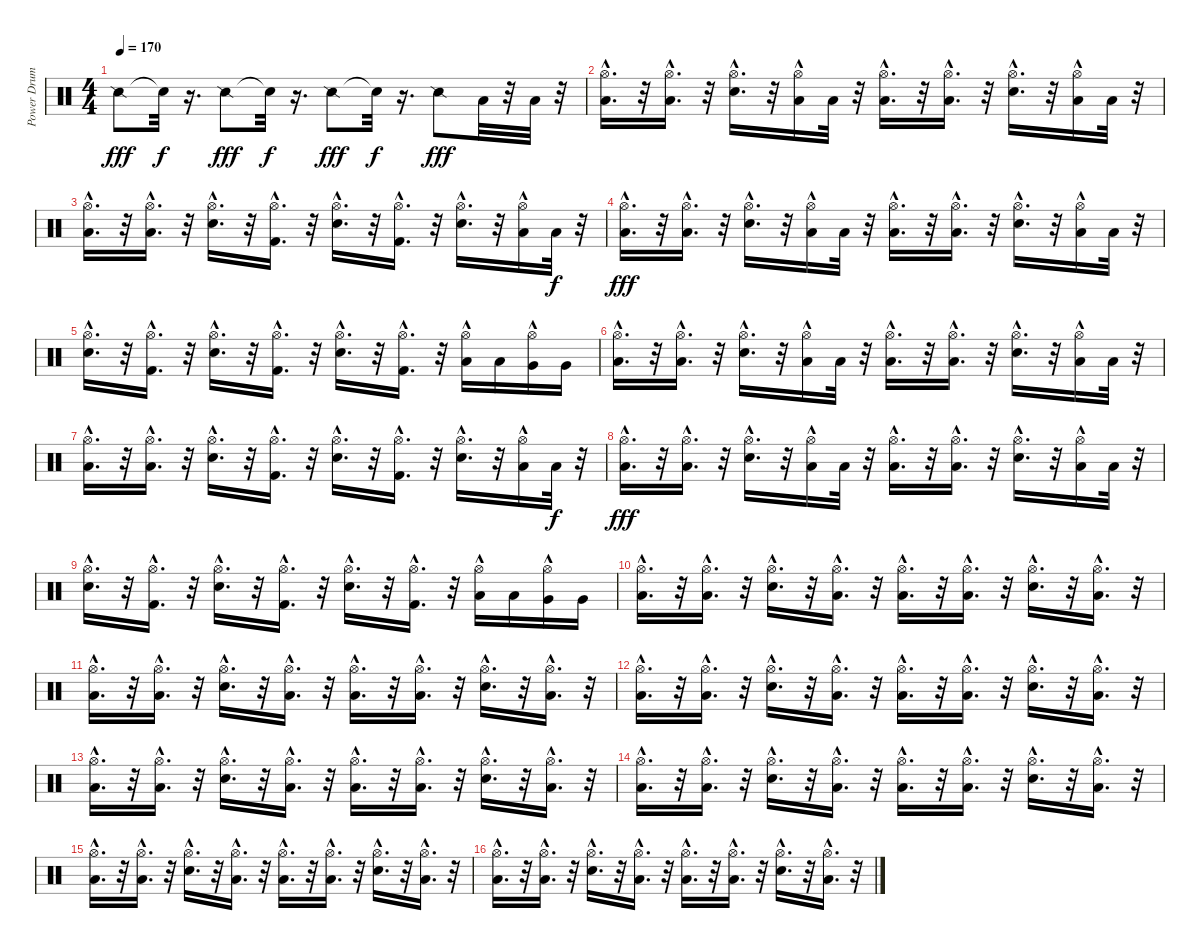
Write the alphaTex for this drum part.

\track ("Power Drums " "Power Drum") {instrument percussion}
\staff {score}
\articulation defaults
\ts (4 4)
\tempo 170
\clef neutral
\ks c "Snare (side stick) 2".8{dy fff} "Snare (hit)"{t}.32{dy f}
r.16{d} "Snare (side stick) 2".8{dy fff} "Snare (hit)"{t}.32{dy f} r.16{d} "Snare (side stick) 2".8{dy fff} "Snare (hit)"{t}.32{dy f} r.16{d} "Snare (side stick) 2".8{dy fff} "Low Floor Tom (hit)".32 r.32 "Low Floor Tom (hit)".32 r.32 |
("Hi-Hat (open)"{hac} "Low Floor Tom (hit)"{hac}).16{d} r.32 ("Hi-Hat (open)"{hac} "Low Floor Tom (hit)"{hac}).16{d} r.32 ("Snare (hit) 2"{hac} "Hi-Hat (open)"{hac}).16{d} r.32 ("Hi-Hat (open)"{hac} "Low Floor Tom (hit)").16 "Low Floor Tom (hit)".32 r.32 ("Hi-Hat (open)"{hac} "Low Floor Tom (hit)"{hac}).16{d} r.32 ("Hi-Hat (open)"{hac} "Low Floor Tom (hit)"{hac}).16{d} r.32 ("Snare (hit) 2"{hac} "Hi-Hat (open)"{hac}).16{d} r.32 ("Hi-Hat (open)"{hac} "Low Floor Tom (hit)").16 "Low Floor Tom (hit)".32 r.32 |
("Hi-Hat (open)"{hac} "Low Floor Tom (hit)"{hac}).16{d} r.32 ("Hi-Hat (open)"{hac} "Low Floor Tom (hit)"{hac}).16{d} r.32 ("Snare (hit) 2"{hac} "Hi-Hat (open)"{hac}).16{d} r.32 ("Kick (hit) 2"{hac} "Hi-Hat (open)"{hac}).16{d} r.32 ("Snare (hit) 2"{hac} "Hi-Hat (open)"{hac}).16{d} r.32 ("Kick (hit) 2"{hac} "Hi-Hat (open)"{hac}).16{d} r.32 ("Snare (hit) 2"{hac} "Hi-Hat (open)"{hac}).16{d} r.32 ("Hi-Hat (open)"{hac} "Low Floor Tom (hit)").16 "Low Floor Tom (hit)".32{dy f} r.32 |
("Hi-Hat (open)"{hac} "Low Floor Tom (hit)"{hac}).16{d dy fff} r.32 ("Hi-Hat (open)"{hac} "Low Floor Tom (hit)"{hac}).16{d} r.32 ("Snare (hit) 2"{hac} "Hi-Hat (open)"{hac}).16{d} r.32 ("Hi-Hat (open)"{hac} "Low Floor Tom (hit)").16 "Low Floor Tom (hit)".32 r.32 ("Hi-Hat (open)"{hac} "Low Floor Tom (hit)"{hac}).16{d} r.32 ("Hi-Hat (open)"{hac} "Low Floor Tom (hit)"{hac}).16{d} r.32 ("Snare (hit) 2"{hac} "Hi-Hat (open)"{hac}).16{d} r.32 ("Hi-Hat (open)"{hac} "Low Floor Tom (hit)").16 "Low Floor Tom (hit)".32 r.32 |
("Snare (hit) 2"{hac} "Hi-Hat (open)"{hac}).16{d} r.32 ("Kick (hit) 2"{hac} "Hi-Hat (open)"{hac}).16{d} r.32 ("Snare (hit) 2"{hac} "Hi-Hat (open)"{hac}).16{d} r.32 ("Kick (hit) 2"{hac} "Hi-Hat (open)"{hac}).16{d} r.32 ("Snare (hit) 2"{hac} "Hi-Hat (open)"{hac}).16{d} r.32 ("Kick (hit) 2"{hac} "Hi-Hat (open)"{hac}).16{d} r.32 ("Hi-Hat (open)"{hac} "Low Tom (hit)").16 "Low Tom (hit)".16 ("Hi-Hat (open)"{hac} "Very Low Tom (hit)").16 "Very Low Tom (hit)".16 |
("Hi-Hat (open)"{hac} "Low Floor Tom (hit)"{hac}).16{d} r.32 ("Hi-Hat (open)"{hac} "Low Floor Tom (hit)"{hac}).16{d} r.32 ("Snare (hit) 2"{hac} "Hi-Hat (open)"{hac}).16{d} r.32 ("Hi-Hat (open)"{hac} "Low Floor Tom (hit)").16 "Low Floor Tom (hit)".32 r.32 ("Hi-Hat (open)"{hac} "Low Floor Tom (hit)"{hac}).16{d} r.32 ("Hi-Hat (open)"{hac} "Low Floor Tom (hit)"{hac}).16{d} r.32 ("Snare (hit) 2"{hac} "Hi-Hat (open)"{hac}).16{d} r.32 ("Hi-Hat (open)"{hac} "Low Floor Tom (hit)").16 "Low Floor Tom (hit)".32 r.32 |
("Hi-Hat (open)"{hac} "Low Floor Tom (hit)"{hac}).16{d} r.32 ("Hi-Hat (open)"{hac} "Low Floor Tom (hit)"{hac}).16{d} r.32 ("Snare (hit) 2"{hac} "Hi-Hat (open)"{hac}).16{d} r.32 ("Kick (hit) 2"{hac} "Hi-Hat (open)"{hac}).16{d} r.32 ("Snare (hit) 2"{hac} "Hi-Hat (open)"{hac}).16{d} r.32 ("Kick (hit) 2"{hac} "Hi-Hat (open)"{hac}).16{d} r.32 ("Snare (hit) 2"{hac} "Hi-Hat (open)"{hac}).16{d} r.32 ("Hi-Hat (open)"{hac} "Low Floor Tom (hit)").16 "Low Floor Tom (hit)".32{dy f} r.32 |
("Hi-Hat (open)"{hac} "Low Floor Tom (hit)"{hac}).16{d dy fff} r.32 ("Hi-Hat (open)"{hac} "Low Floor Tom (hit)"{hac}).16{d} r.32 ("Snare (hit) 2"{hac} "Hi-Hat (open)"{hac}).16{d} r.32 ("Hi-Hat (open)"{hac} "Low Floor Tom (hit)").16 "Low Floor Tom (hit)".32 r.32 ("Hi-Hat (open)"{hac} "Low Floor Tom (hit)"{hac}).16{d} r.32 ("Hi-Hat (open)"{hac} "Low Floor Tom (hit)"{hac}).16{d} r.32 ("Snare (hit) 2"{hac} "Hi-Hat (open)"{hac}).16{d} r.32 ("Hi-Hat (open)"{hac} "Low Floor Tom (hit)").16 "Low Floor Tom (hit)".32 r.32 |
("Snare (hit) 2"{hac} "Hi-Hat (open)"{hac}).16{d} r.32 ("Kick (hit) 2"{hac} "Hi-Hat (open)"{hac}).16{d} r.32 ("Snare (hit) 2"{hac} "Hi-Hat (open)"{hac}).16{d} r.32 ("Kick (hit) 2"{hac} "Hi-Hat (open)"{hac}).16{d} r.32 ("Snare (hit) 2"{hac} "Hi-Hat (open)"{hac}).16{d} r.32 ("Kick (hit) 2"{hac} "Hi-Hat (open)"{hac}).16{d} r.32 ("Hi-Hat (open)"{hac} "Low Tom (hit)").16 "Low Tom (hit)".16 ("Hi-Hat (open)"{hac} "Very Low Tom (hit)").16 "Very Low Tom (hit)".16 |
("Hi-Hat (open)"{hac} "Low Floor Tom (hit)"{hac}).16{d} r.32 ("Hi-Hat (open)"{hac} "Low Floor Tom (hit)"{hac}).16{d} r.32 ("Hi-Hat (open)"{hac} "Snare (hit) 2"{hac}).16{d} r.32 ("Hi-Hat (open)"{hac} "Low Floor Tom (hit)"{hac}).16{d} r.32 ("Hi-Hat (open)"{hac} "Low Floor Tom (hit)"{hac}).16{d} r.32 ("Hi-Hat (open)"{hac} "Low Floor Tom (hit)"{hac}).16{d} r.32 ("Hi-Hat (open)"{hac} "Snare (hit) 2"{hac}).16{d} r.32 ("Hi-Hat (open)"{hac} "Low Floor Tom (hit)"{hac}).16{d} r.32 |
("Hi-Hat (open)"{hac} "Low Floor Tom (hit)"{hac}).16{d} r.32 ("Hi-Hat (open)"{hac} "Low Floor Tom (hit)"{hac}).16{d} r.32 ("Hi-Hat (open)"{hac} "Snare (hit) 2"{hac}).16{d} r.32 ("Hi-Hat (open)"{hac} "Low Floor Tom (hit)"{hac}).16{d} r.32 ("Hi-Hat (open)"{hac} "Low Floor Tom (hit)"{hac}).16{d} r.32 ("Hi-Hat (open)"{hac} "Low Floor Tom (hit)"{hac}).16{d} r.32 ("Hi-Hat (open)"{hac} "Snare (hit) 2"{hac}).16{d} r.32 ("Hi-Hat (open)"{hac} "Low Floor Tom (hit)"{hac}).16{d} r.32 |
("Hi-Hat (open)"{hac} "Low Floor Tom (hit)"{hac}).16{d} r.32 ("Hi-Hat (open)"{hac} "Low Floor Tom (hit)"{hac}).16{d} r.32 ("Hi-Hat (open)"{hac} "Snare (hit) 2"{hac}).16{d} r.32 ("Hi-Hat (open)"{hac} "Low Floor Tom (hit)"{hac}).16{d} r.32 ("Hi-Hat (open)"{hac} "Low Floor Tom (hit)"{hac}).16{d} r.32 ("Hi-Hat (open)"{hac} "Low Floor Tom (hit)"{hac}).16{d} r.32 ("Hi-Hat (open)"{hac} "Snare (hit) 2"{hac}).16{d} r.32 ("Hi-Hat (open)"{hac} "Low Floor Tom (hit)"{hac}).16{d} r.32 |
("Hi-Hat (open)"{hac} "Low Floor Tom (hit)"{hac}).16{d} r.32 ("Hi-Hat (open)"{hac} "Low Floor Tom (hit)"{hac}).16{d} r.32 ("Hi-Hat (open)"{hac} "Snare (hit) 2"{hac}).16{d} r.32 ("Hi-Hat (open)"{hac} "Low Floor Tom (hit)"{hac}).16{d} r.32 ("Hi-Hat (open)"{hac} "Low Floor Tom (hit)"{hac}).16{d} r.32 ("Hi-Hat (open)"{hac} "Low Floor Tom (hit)"{hac}).16{d} r.32 ("Hi-Hat (open)"{hac} "Snare (hit) 2"{hac}).16{d} r.32 ("Hi-Hat (open)"{hac} "Low Floor Tom (hit)"{hac}).16{d} r.32 |
("Hi-Hat (open)"{hac} "Low Floor Tom (hit)"{hac}).16{d} r.32 ("Hi-Hat (open)"{hac} "Low Floor Tom (hit)"{hac}).16{d} r.32 ("Hi-Hat (open)"{hac} "Snare (hit) 2"{hac}).16{d} r.32 ("Hi-Hat (open)"{hac} "Low Floor Tom (hit)"{hac}).16{d} r.32 ("Hi-Hat (open)"{hac} "Low Floor Tom (hit)"{hac}).16{d} r.32 ("Hi-Hat (open)"{hac} "Low Floor Tom (hit)"{hac}).16{d} r.32 ("Hi-Hat (open)"{hac} "Snare (hit) 2"{hac}).16{d} r.32 ("Hi-Hat (open)"{hac} "Low Floor Tom (hit)"{hac}).16{d} r.32 |
("Hi-Hat (open)"{hac} "Low Floor Tom (hit)"{hac}).16{d} r.32 ("Hi-Hat (open)"{hac} "Low Floor Tom (hit)"{hac}).16{d} r.32 ("Hi-Hat (open)"{hac} "Snare (hit) 2"{hac}).16{d} r.32 ("Hi-Hat (open)"{hac} "Low Floor Tom (hit)"{hac}).16{d} r.32 ("Hi-Hat (open)"{hac} "Low Floor Tom (hit)"{hac}).16{d} r.32 ("Hi-Hat (open)"{hac} "Low Floor Tom (hit)"{hac}).16{d} r.32 ("Hi-Hat (open)"{hac} "Snare (hit) 2"{hac}).16{d} r.32 ("Hi-Hat (open)"{hac} "Low Floor Tom (hit)"{hac}).16{d} r.32 |
("Hi-Hat (open)"{hac} "Low Floor Tom (hit)"{hac}).16{d} r.32 ("Hi-Hat (open)"{hac} "Low Floor Tom (hit)"{hac}).16{d} r.32 ("Hi-Hat (open)"{hac} "Snare (hit) 2"{hac}).16{d} r.32 ("Hi-Hat (open)"{hac} "Low Floor Tom (hit)"{hac}).16{d} r.32 ("Hi-Hat (open)"{hac} "Low Floor Tom (hit)"{hac}).16{d} r.32 ("Hi-Hat (open)"{hac} "Low Floor Tom (hit)"{hac}).16{d} r.32 ("Hi-Hat (open)"{hac} "Snare (hit) 2"{hac}).16{d} r.32 ("Hi-Hat (open)"{hac} "Low Floor Tom (hit)"{hac}).16{d} r.32
